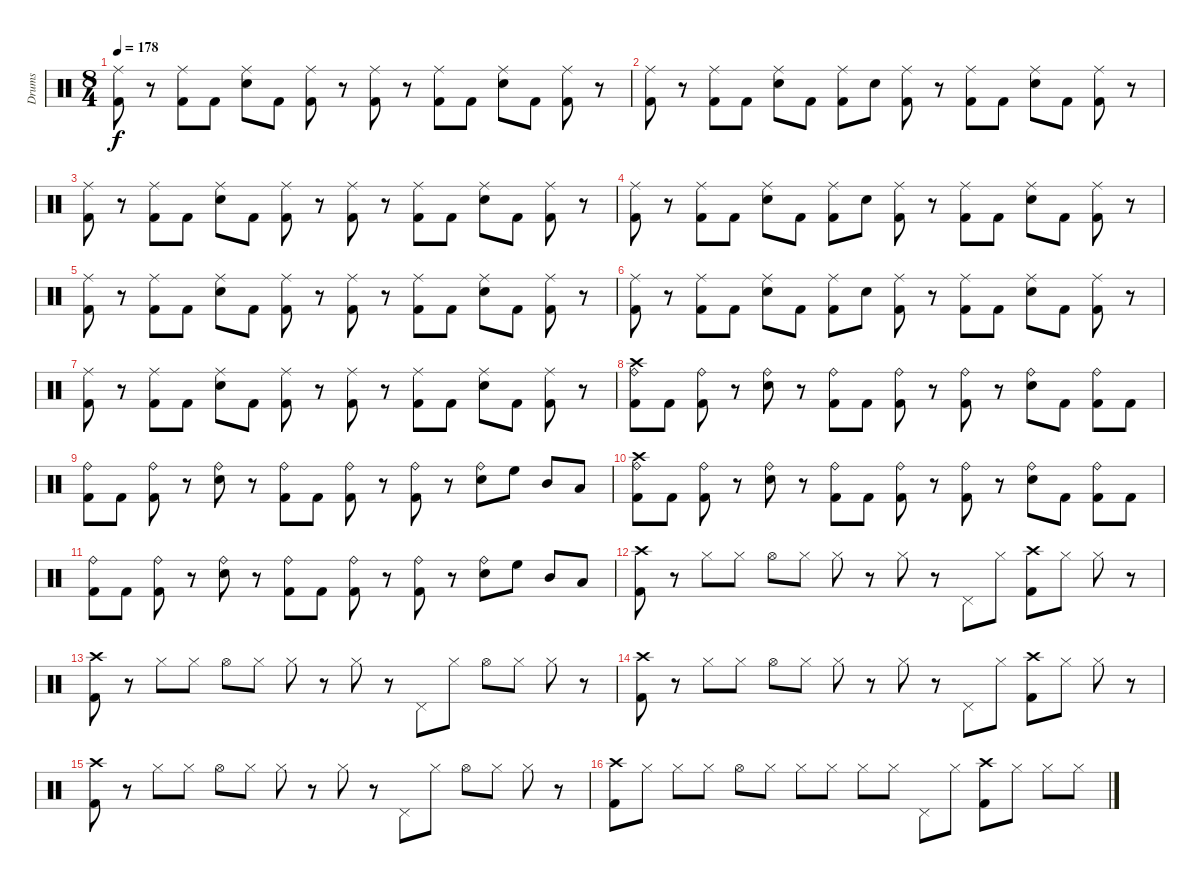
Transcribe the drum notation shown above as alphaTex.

\track ("Drums" "Drums") {instrument percussion}
\staff {score}
\articulation defaults
\ts (8 4)
\tempo 178
\clef neutral
\ks c
("Ride (middle)" "Kick (hit) 2").8{dy f} r.8 ("Ride (middle)" "Kick (hit) 2").8 "Kick (hit) 2".8 ("Ride (middle)" "Snare (hit) 2").8 "Kick (hit) 2".8 ("Ride (middle)" "Kick (hit) 2").8 r.8 ("Ride (middle)" "Kick (hit) 2").8 r.8 ("Ride (middle)" "Kick (hit) 2").8 "Kick (hit) 2".8 ("Ride (middle)" "Snare (hit) 2").8 "Kick (hit) 2".8 ("Ride (middle)" "Kick (hit) 2").8 r.8 |
("Ride (middle)" "Kick (hit) 2").8 r.8 ("Ride (middle)" "Kick (hit) 2").8 "Kick (hit) 2".8 ("Ride (middle)" "Snare (hit) 2").8 "Kick (hit) 2".8 ("Ride (middle)" "Kick (hit) 2").8 "Snare (hit) 2".8 ("Ride (middle)" "Kick (hit) 2").8 r.8 ("Ride (middle)" "Kick (hit) 2").8 "Kick (hit) 2".8 ("Ride (middle)" "Snare (hit) 2").8 "Kick (hit) 2".8 ("Ride (middle)" "Kick (hit) 2").8 r.8 |
("Ride (middle)" "Kick (hit) 2").8 r.8 ("Ride (middle)" "Kick (hit) 2").8 "Kick (hit) 2".8 ("Ride (middle)" "Snare (hit) 2").8 "Kick (hit) 2".8 ("Ride (middle)" "Kick (hit) 2").8 r.8 ("Ride (middle)" "Kick (hit) 2").8 r.8 ("Ride (middle)" "Kick (hit) 2").8 "Kick (hit) 2".8 ("Ride (middle)" "Snare (hit) 2").8 "Kick (hit) 2".8 ("Ride (middle)" "Kick (hit) 2").8 r.8 |
("Ride (middle)" "Kick (hit) 2").8 r.8 ("Ride (middle)" "Kick (hit) 2").8 "Kick (hit) 2".8 ("Ride (middle)" "Snare (hit) 2").8 "Kick (hit) 2".8 ("Ride (middle)" "Kick (hit) 2").8 "Snare (hit) 2".8 ("Ride (middle)" "Kick (hit) 2").8 r.8 ("Ride (middle)" "Kick (hit) 2").8 "Kick (hit) 2".8 ("Ride (middle)" "Snare (hit) 2").8 "Kick (hit) 2".8 ("Ride (middle)" "Kick (hit) 2").8 r.8 |
("Ride (middle)" "Kick (hit) 2").8 r.8 ("Ride (middle)" "Kick (hit) 2").8 "Kick (hit) 2".8 ("Ride (middle)" "Snare (hit) 2").8 "Kick (hit) 2".8 ("Ride (middle)" "Kick (hit) 2").8 r.8 ("Ride (middle)" "Kick (hit) 2").8 r.8 ("Ride (middle)" "Kick (hit) 2").8 "Kick (hit) 2".8 ("Ride (middle)" "Snare (hit) 2").8 "Kick (hit) 2".8 ("Ride (middle)" "Kick (hit) 2").8 r.8 |
("Ride (middle)" "Kick (hit) 2").8 r.8 ("Ride (middle)" "Kick (hit) 2").8 "Kick (hit) 2".8 ("Ride (middle)" "Snare (hit) 2").8 "Kick (hit) 2".8 ("Ride (middle)" "Kick (hit) 2").8 "Snare (hit) 2".8 ("Ride (middle)" "Kick (hit) 2").8 r.8 ("Ride (middle)" "Kick (hit) 2").8 "Kick (hit) 2".8 ("Ride (middle)" "Snare (hit) 2").8 "Kick (hit) 2".8 ("Ride (middle)" "Kick (hit) 2").8 r.8 |
("Ride (middle)" "Kick (hit) 2").8 r.8 ("Ride (middle)" "Kick (hit) 2").8 "Kick (hit) 2".8 ("Ride (middle)" "Snare (hit) 2").8 "Kick (hit) 2".8 ("Ride (middle)" "Kick (hit) 2").8 r.8 ("Ride (middle)" "Kick (hit) 2").8 r.8 ("Ride (middle)" "Kick (hit) 2").8 "Kick (hit) 2".8 ("Ride (middle)" "Snare (hit) 2").8 "Kick (hit) 2".8 ("Ride (middle)" "Kick (hit) 2").8 r.8 |
("Crash high (hit)" "Kick (hit) 2" "Ride (bell)").8 "Kick (hit) 2".8 ("Kick (hit) 2" "Ride (bell)").8 r.8 ("Snare (hit) 2" "Ride (bell)").8 r.8 ("Kick (hit) 2" "Ride (bell)").8 "Kick (hit) 2".8 ("Kick (hit) 2" "Ride (bell)").8 r.8 ("Kick (hit) 2" "Ride (bell)").8 r.8 ("Snare (hit) 2" "Ride (bell)").8 "Kick (hit) 2".8 ("Kick (hit) 2" "Ride (bell)").8 "Kick (hit) 2".8 |
("Kick (hit) 2" "Ride (bell)").8 "Kick (hit) 2".8 ("Kick (hit) 2" "Ride (bell)").8 r.8 ("Snare (hit) 2" "Ride (bell)").8 r.8 ("Kick (hit) 2" "Ride (bell)").8 "Kick (hit) 2".8 ("Kick (hit) 2" "Ride (bell)").8 r.8 ("Kick (hit) 2" "Ride (bell)").8 r.8 ("Snare (hit) 2" "Ride (bell)").8 "High Floor Tom (hit)".8 "Mid Tom (hit)".8 "Low Tom (hit)".8 |
("Crash high (hit)" "Kick (hit) 2" "Ride (bell)").8 "Kick (hit) 2".8 ("Kick (hit) 2" "Ride (bell)").8 r.8 ("Snare (hit) 2" "Ride (bell)").8 r.8 ("Kick (hit) 2" "Ride (bell)").8 "Kick (hit) 2".8 ("Kick (hit) 2" "Ride (bell)").8 r.8 ("Kick (hit) 2" "Ride (bell)").8 r.8 ("Snare (hit) 2" "Ride (bell)").8 "Kick (hit) 2".8 ("Kick (hit) 2" "Ride (bell)").8 "Kick (hit) 2".8 |
("Kick (hit) 2" "Ride (bell)").8 "Kick (hit) 2".8 ("Kick (hit) 2" "Ride (bell)").8 r.8 ("Snare (hit) 2" "Ride (bell)").8 r.8 ("Kick (hit) 2" "Ride (bell)").8 "Kick (hit) 2".8 ("Kick (hit) 2" "Ride (bell)").8 r.8 ("Kick (hit) 2" "Ride (bell)").8 r.8 ("Snare (hit) 2" "Ride (bell)").8 "High Floor Tom (hit)".8 "Mid Tom (hit)".8 "Low Tom (hit)".8 |
("Crash high (hit)" "Kick (hit) 2").8 r.8 "Hi-Hat (closed)".8 "Hi-Hat (closed)".8 "Hi-Hat (open)".8 "Hi-Hat (closed)".8 "Hi-Hat (closed)".8 r.8 "Hi-Hat (closed)".8 r.8 "Pedal Hi-Hat (hit)".8 "Hi-Hat (closed)".8 ("Crash high (hit)" "Kick (hit) 2").8 "Hi-Hat (closed)".8 "Hi-Hat (closed)".8 r.8 |
("Crash high (hit)" "Kick (hit) 2").8 r.8 "Hi-Hat (closed)".8 "Hi-Hat (closed)".8 "Hi-Hat (open)".8 "Hi-Hat (closed)".8 "Hi-Hat (closed)".8 r.8 "Hi-Hat (closed)".8 r.8 "Pedal Hi-Hat (hit)".8 "Hi-Hat (closed)".8 "Hi-Hat (open)".8 "Hi-Hat (closed)".8 "Hi-Hat (closed)".8 r.8 |
("Crash high (hit)" "Kick (hit) 2").8 r.8 "Hi-Hat (closed)".8 "Hi-Hat (closed)".8 "Hi-Hat (open)".8 "Hi-Hat (closed)".8 "Hi-Hat (closed)".8 r.8 "Hi-Hat (closed)".8 r.8 "Pedal Hi-Hat (hit)".8 "Hi-Hat (closed)".8 ("Crash high (hit)" "Kick (hit) 2").8 "Hi-Hat (closed)".8 "Hi-Hat (closed)".8 r.8 |
("Crash high (hit)" "Kick (hit) 2").8 r.8 "Hi-Hat (closed)".8 "Hi-Hat (closed)".8 "Hi-Hat (open)".8 "Hi-Hat (closed)".8 "Hi-Hat (closed)".8 r.8 "Hi-Hat (closed)".8 r.8 "Pedal Hi-Hat (hit)".8 "Hi-Hat (closed)".8 "Hi-Hat (open)".8 "Hi-Hat (closed)".8 "Hi-Hat (closed)".8 r.8 |
("Crash high (hit)" "Kick (hit) 2").8 "Hi-Hat (closed)".8 "Hi-Hat (closed)".8 "Hi-Hat (closed)".8 "Hi-Hat (open)".8 "Hi-Hat (closed)".8 "Hi-Hat (closed)".8 "Hi-Hat (closed)".8 "Hi-Hat (closed)".8 "Hi-Hat (closed)".8 "Pedal Hi-Hat (hit)".8 "Hi-Hat (closed)".8 ("Crash high (hit)" "Kick (hit) 2").8 "Hi-Hat (closed)".8 "Hi-Hat (closed)".8 "Hi-Hat (closed)".8
